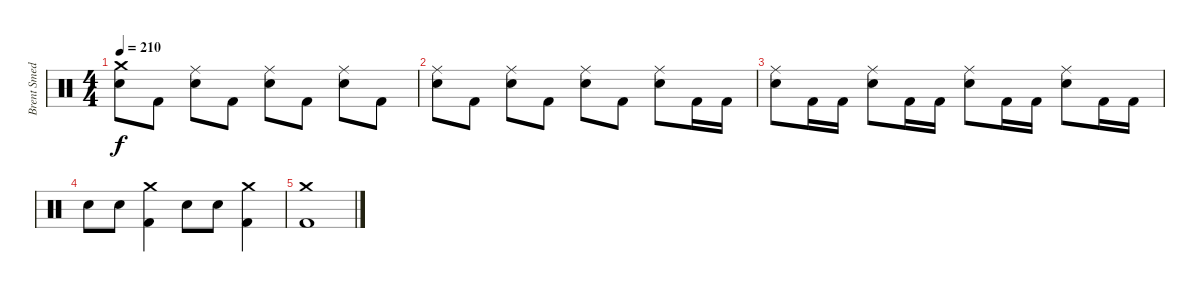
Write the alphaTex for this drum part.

\track ("Brent Smedley" "Brent Smed") {instrument percussion}
\staff {score}
\articulation defaults
\ts (4 4)
\tempo 210
\clef neutral
\ks c
("Crash medium (hit)" "Electric Snare (hit)").8{dy f} "Kick (hit) 2".8 ("Ride (middle)" "Electric Snare (hit)").8 "Kick (hit) 2".8 ("Ride (middle)" "Electric Snare (hit)").8 "Kick (hit) 2".8 ("Ride (middle)" "Electric Snare (hit)").8 "Kick (hit) 2".8 |
("Ride (middle)" "Electric Snare (hit)").8 "Kick (hit) 2".8 ("Ride (middle)" "Electric Snare (hit)").8 "Kick (hit) 2".8 ("Ride (middle)" "Electric Snare (hit)").8 "Kick (hit) 2".8 ("Ride (middle)" "Electric Snare (hit)").8 "Kick (hit) 2".16 "Kick (hit) 2".16 |
("Ride (middle)" "Electric Snare (hit)").8 "Kick (hit) 2".16 "Kick (hit) 2".16 ("Ride (middle)" "Electric Snare (hit)").8 "Kick (hit) 2".16 "Kick (hit) 2".16 ("Ride (middle)" "Electric Snare (hit)").8 "Kick (hit) 2".16 "Kick (hit) 2".16 ("Ride (middle)" "Electric Snare (hit)").8 "Kick (hit) 2".16 "Kick (hit) 2".16 |
"Electric Snare (hit)".8 "Electric Snare (hit)".8 ("Crash medium (hit)" "Kick (hit) 2").4 "Electric Snare (hit)".8 "Electric Snare (hit)".8 ("Crash medium (hit)" "Kick (hit) 2").4 |
("Crash medium (hit)" "Kick (hit) 2").1
